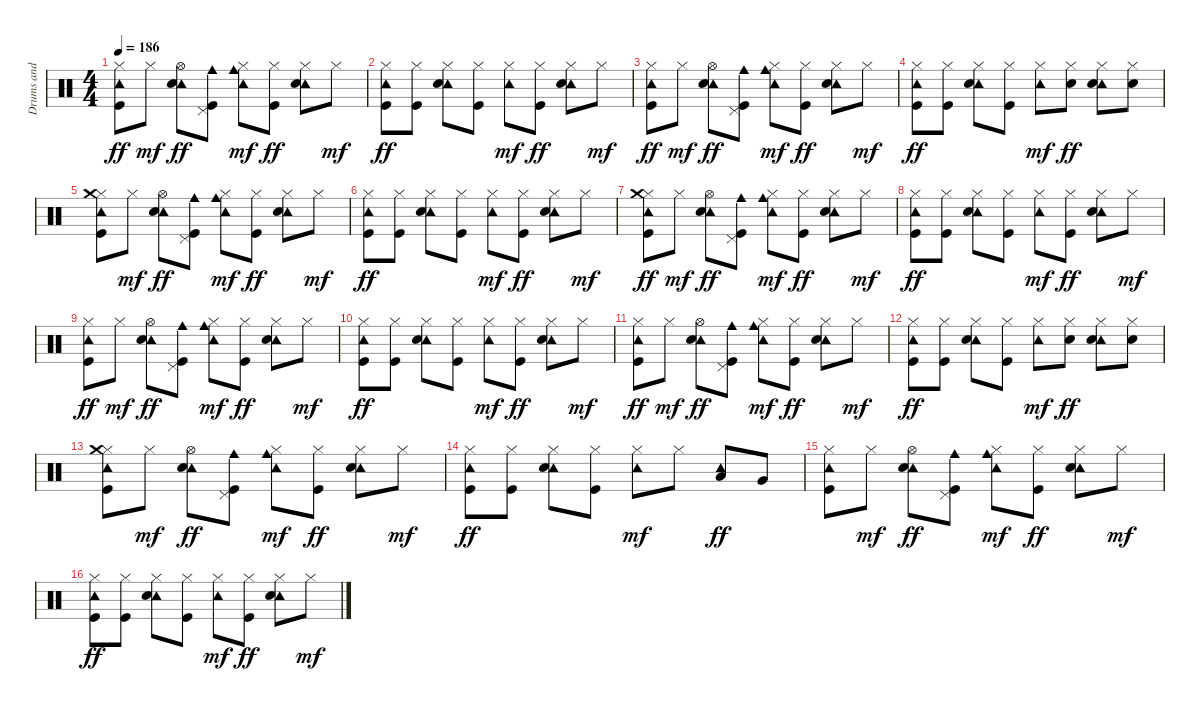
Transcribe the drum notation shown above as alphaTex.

\track ("Drums and Percs" "Drums and ") {instrument percussion}
\staff {score}
\articulation defaults
\ts (4 4)
\tempo 186
\clef neutral
\ks c
("Hi-Hat (closed)" "Tambourine (hit)" "Kick (hit)").8{dy ff} "Hi-Hat (closed)".8{dy mf} ("Hi-Hat (open)" "Tambourine (hit)" "Electric Snare (hit)").8{dy ff} ("Pedal Hi-Hat (hit)" "Cowbell medium (hit)" "Kick (hit)").8 ("Hi-Hat (closed)" "Tambourine (hit)" "Cowbell medium (hit)").8{dy mf} ("Hi-Hat (closed)" "Kick (hit)").8{dy ff} ("Hi-Hat (closed)" "Tambourine (hit)" "Electric Snare (hit)").8 "Hi-Hat (closed)".8{dy mf} |
("Hi-Hat (closed)" "Tambourine (hit)" "Kick (hit)").8{dy ff} ("Hi-Hat (closed)" "Kick (hit)").8 ("Hi-Hat (closed)" "Tambourine (hit)" "Electric Snare (hit)").8 ("Hi-Hat (closed)" "Kick (hit)").8 ("Hi-Hat (closed)" "Tambourine (hit)").8{dy mf} ("Hi-Hat (closed)" "Kick (hit)").8{dy ff} ("Hi-Hat (closed)" "Tambourine (hit)" "Electric Snare (hit)").8 "Hi-Hat (closed)".8{dy mf} |
("Hi-Hat (closed)" "Tambourine (hit)" "Kick (hit)").8{dy ff} "Hi-Hat (closed)".8{dy mf} ("Hi-Hat (open)" "Tambourine (hit)" "Electric Snare (hit)").8{dy ff} ("Pedal Hi-Hat (hit)" "Cowbell medium (hit)" "Kick (hit)").8 ("Hi-Hat (closed)" "Tambourine (hit)" "Cowbell medium (hit)").8{dy mf} ("Hi-Hat (closed)" "Kick (hit)").8{dy ff} ("Hi-Hat (closed)" "Tambourine (hit)" "Electric Snare (hit)").8 "Hi-Hat (closed)".8{dy mf} |
("Hi-Hat (closed)" "Tambourine (hit)" "Kick (hit)").8{dy ff} ("Hi-Hat (closed)" "Kick (hit)").8 ("Hi-Hat (closed)" "Tambourine (hit)" "Electric Snare (hit)").8 ("Hi-Hat (closed)" "Kick (hit)").8 ("Hi-Hat (closed)" "Tambourine (hit)").8{dy mf} ("Hi-Hat (closed)" "Electric Snare (hit)").8{dy ff} ("Hi-Hat (closed)" "Tambourine (hit)" "Electric Snare (hit)").8 ("Hi-Hat (closed)" "Electric Snare (hit)").8 |
("Hi-Hat (closed)" "Tambourine (hit)" "Crash medium (hit)" "Kick (hit)").8 "Hi-Hat (closed)".8{dy mf} ("Hi-Hat (open)" "Tambourine (hit)" "Electric Snare (hit)").8{dy ff} ("Pedal Hi-Hat (hit)" "Cowbell medium (hit)" "Kick (hit)").8 ("Hi-Hat (closed)" "Tambourine (hit)" "Cowbell medium (hit)").8{dy mf} ("Hi-Hat (closed)" "Kick (hit)").8{dy ff} ("Hi-Hat (closed)" "Tambourine (hit)" "Electric Snare (hit)").8 "Hi-Hat (closed)".8{dy mf} |
("Hi-Hat (closed)" "Tambourine (hit)" "Kick (hit)").8{dy ff} ("Hi-Hat (closed)" "Kick (hit)").8 ("Hi-Hat (closed)" "Tambourine (hit)" "Electric Snare (hit)").8 ("Hi-Hat (closed)" "Kick (hit)").8 ("Hi-Hat (closed)" "Tambourine (hit)").8{dy mf} ("Hi-Hat (closed)" "Kick (hit)").8{dy ff} ("Hi-Hat (closed)" "Tambourine (hit)" "Electric Snare (hit)").8 "Hi-Hat (closed)".8{dy mf} |
("Hi-Hat (closed)" "Tambourine (hit)" "Crash medium (hit)" "Kick (hit)").8{dy ff} "Hi-Hat (closed)".8{dy mf} ("Hi-Hat (open)" "Tambourine (hit)" "Electric Snare (hit)").8{dy ff} ("Pedal Hi-Hat (hit)" "Cowbell medium (hit)" "Kick (hit)").8 ("Hi-Hat (closed)" "Tambourine (hit)" "Cowbell medium (hit)").8{dy mf} ("Hi-Hat (closed)" "Kick (hit)").8{dy ff} ("Hi-Hat (closed)" "Tambourine (hit)" "Electric Snare (hit)").8 "Hi-Hat (closed)".8{dy mf} |
("Hi-Hat (closed)" "Tambourine (hit)" "Kick (hit)").8{dy ff} ("Hi-Hat (closed)" "Kick (hit)").8 ("Hi-Hat (closed)" "Tambourine (hit)" "Electric Snare (hit)").8 ("Hi-Hat (closed)" "Kick (hit)").8 ("Hi-Hat (closed)" "Tambourine (hit)").8{dy mf} ("Hi-Hat (closed)" "Kick (hit)").8{dy ff} ("Hi-Hat (closed)" "Tambourine (hit)" "Electric Snare (hit)").8 "Hi-Hat (closed)".8{dy mf} |
("Hi-Hat (closed)" "Tambourine (hit)" "Kick (hit)").8{dy ff} "Hi-Hat (closed)".8{dy mf} ("Hi-Hat (open)" "Tambourine (hit)" "Electric Snare (hit)").8{dy ff} ("Pedal Hi-Hat (hit)" "Cowbell medium (hit)" "Kick (hit)").8 ("Hi-Hat (closed)" "Tambourine (hit)" "Cowbell medium (hit)").8{dy mf} ("Hi-Hat (closed)" "Kick (hit)").8{dy ff} ("Hi-Hat (closed)" "Tambourine (hit)" "Electric Snare (hit)").8 "Hi-Hat (closed)".8{dy mf} |
("Hi-Hat (closed)" "Tambourine (hit)" "Kick (hit)").8{dy ff} ("Hi-Hat (closed)" "Kick (hit)").8 ("Hi-Hat (closed)" "Tambourine (hit)" "Electric Snare (hit)").8 ("Hi-Hat (closed)" "Kick (hit)").8 ("Hi-Hat (closed)" "Tambourine (hit)").8{dy mf} ("Hi-Hat (closed)" "Kick (hit)").8{dy ff} ("Hi-Hat (closed)" "Tambourine (hit)" "Electric Snare (hit)").8 "Hi-Hat (closed)".8{dy mf} |
("Hi-Hat (closed)" "Tambourine (hit)" "Kick (hit)").8{dy ff} "Hi-Hat (closed)".8{dy mf} ("Hi-Hat (open)" "Tambourine (hit)" "Electric Snare (hit)").8{dy ff} ("Pedal Hi-Hat (hit)" "Cowbell medium (hit)" "Kick (hit)").8 ("Hi-Hat (closed)" "Tambourine (hit)" "Cowbell medium (hit)").8{dy mf} ("Hi-Hat (closed)" "Kick (hit)").8{dy ff} ("Hi-Hat (closed)" "Tambourine (hit)" "Electric Snare (hit)").8 "Hi-Hat (closed)".8{dy mf} |
("Hi-Hat (closed)" "Tambourine (hit)" "Kick (hit)").8{dy ff} ("Hi-Hat (closed)" "Kick (hit)").8 ("Hi-Hat (closed)" "Tambourine (hit)" "Electric Snare (hit)").8 ("Hi-Hat (closed)" "Kick (hit)").8 ("Hi-Hat (closed)" "Tambourine (hit)").8{dy mf} ("Hi-Hat (closed)" "Electric Snare (hit)").8{dy ff} ("Hi-Hat (closed)" "Tambourine (hit)" "Electric Snare (hit)").8 ("Hi-Hat (closed)" "Electric Snare (hit)").8 |
("Hi-Hat (closed)" "Tambourine (hit)" "Crash medium (hit)" "Kick (hit)").8 "Hi-Hat (closed)".8{dy mf} ("Hi-Hat (open)" "Tambourine (hit)" "Electric Snare (hit)").8{dy ff} ("Pedal Hi-Hat (hit)" "Cowbell medium (hit)" "Kick (hit)").8 ("Hi-Hat (closed)" "Tambourine (hit)" "Cowbell medium (hit)").8{dy mf} ("Hi-Hat (closed)" "Kick (hit)").8{dy ff} ("Hi-Hat (closed)" "Tambourine (hit)" "Electric Snare (hit)").8 "Hi-Hat (closed)".8{dy mf} |
("Hi-Hat (closed)" "Tambourine (hit)" "Kick (hit)").8{dy ff} ("Hi-Hat (closed)" "Kick (hit)").8 ("Hi-Hat (closed)" "Tambourine (hit)" "Electric Snare (hit)").8 ("Hi-Hat (closed)" "Kick (hit)").8 ("Hi-Hat (closed)" "Tambourine (hit)").8{dy mf} "Hi-Hat (closed)".8 ("Tambourine (hit)" "Low Tom (hit)").8{dy ff} "Very Low Tom (hit)".8 |
("Hi-Hat (closed)" "Tambourine (hit)" "Kick (hit)").8 "Hi-Hat (closed)".8{dy mf} ("Hi-Hat (open)" "Tambourine (hit)" "Electric Snare (hit)").8{dy ff} ("Pedal Hi-Hat (hit)" "Cowbell medium (hit)" "Kick (hit)").8 ("Hi-Hat (closed)" "Tambourine (hit)" "Cowbell medium (hit)").8{dy mf} ("Hi-Hat (closed)" "Kick (hit)").8{dy ff} ("Hi-Hat (closed)" "Tambourine (hit)" "Electric Snare (hit)").8 "Hi-Hat (closed)".8{dy mf} |
("Hi-Hat (closed)" "Tambourine (hit)" "Kick (hit)").8{dy ff} ("Hi-Hat (closed)" "Kick (hit)").8 ("Hi-Hat (closed)" "Tambourine (hit)" "Electric Snare (hit)").8 ("Hi-Hat (closed)" "Kick (hit)").8 ("Hi-Hat (closed)" "Tambourine (hit)").8{dy mf} ("Hi-Hat (closed)" "Kick (hit)").8{dy ff} ("Hi-Hat (closed)" "Tambourine (hit)" "Electric Snare (hit)").8 "Hi-Hat (closed)".8{dy mf}
